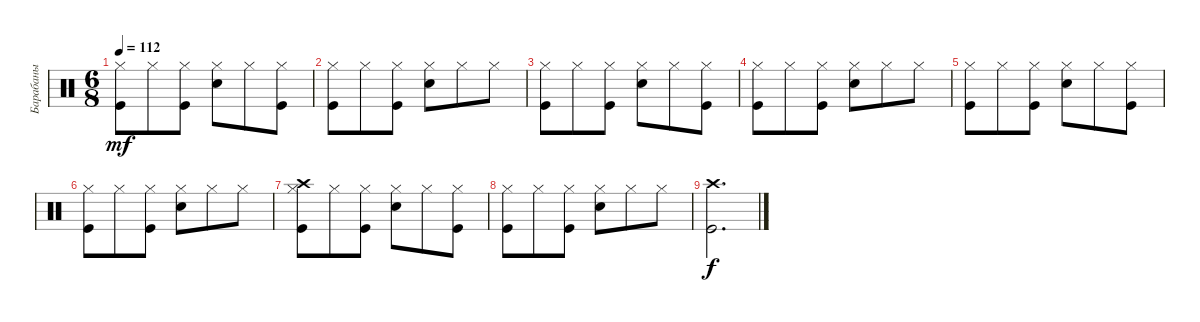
\track ("Барабаны" "Барабаны") {instrument percussion}
\staff {score}
\articulation defaults
\ts (6 8)
\tempo 112
\clef neutral
\ks c
("Kick (hit)" "Hi-Hat (closed)").8{dy mf} "Hi-Hat (closed)".8 ("Kick (hit)" "Hi-Hat (closed)").8 ("Snare (hit) 2" "Hi-Hat (closed)").8 "Hi-Hat (closed)".8 ("Kick (hit)" "Hi-Hat (closed)").8 |
("Kick (hit)" "Hi-Hat (closed)").8 "Hi-Hat (closed)".8 ("Kick (hit)" "Hi-Hat (closed)").8 ("Snare (hit) 2" "Hi-Hat (closed)").8 "Hi-Hat (closed)".8 "Hi-Hat (closed)".8 |
("Kick (hit)" "Hi-Hat (closed)").8 "Hi-Hat (closed)".8 ("Kick (hit)" "Hi-Hat (closed)").8 ("Snare (hit) 2" "Hi-Hat (closed)").8 "Hi-Hat (closed)".8 ("Kick (hit)" "Hi-Hat (closed)").8 |
("Kick (hit)" "Hi-Hat (closed)").8 "Hi-Hat (closed)".8 ("Kick (hit)" "Hi-Hat (closed)").8 ("Snare (hit) 2" "Hi-Hat (closed)").8 "Hi-Hat (closed)".8 "Hi-Hat (closed)".8 |
("Kick (hit)" "Hi-Hat (closed)").8 "Hi-Hat (closed)".8 ("Kick (hit)" "Hi-Hat (closed)").8 ("Snare (hit) 2" "Hi-Hat (closed)").8 "Hi-Hat (closed)".8 ("Kick (hit)" "Hi-Hat (closed)").8 |
("Kick (hit)" "Hi-Hat (closed)").8 "Hi-Hat (closed)".8 ("Kick (hit)" "Hi-Hat (closed)").8 ("Snare (hit) 2" "Hi-Hat (closed)").8 "Hi-Hat (closed)".8 "Hi-Hat (closed)".8 |
("Kick (hit)" "Hi-Hat (closed)" "Crash high (hit)").8 "Hi-Hat (closed)".8 ("Kick (hit)" "Hi-Hat (closed)").8 ("Snare (hit) 2" "Hi-Hat (closed)").8 "Hi-Hat (closed)".8 ("Kick (hit)" "Hi-Hat (closed)").8 |
("Kick (hit)" "Hi-Hat (closed)").8 "Hi-Hat (closed)".8 ("Kick (hit)" "Hi-Hat (closed)").8 ("Snare (hit) 2" "Hi-Hat (closed)").8 "Hi-Hat (closed)".8 "Hi-Hat (closed)".8 |
("Kick (hit)" "Crash high (hit)").2{d dy f}
